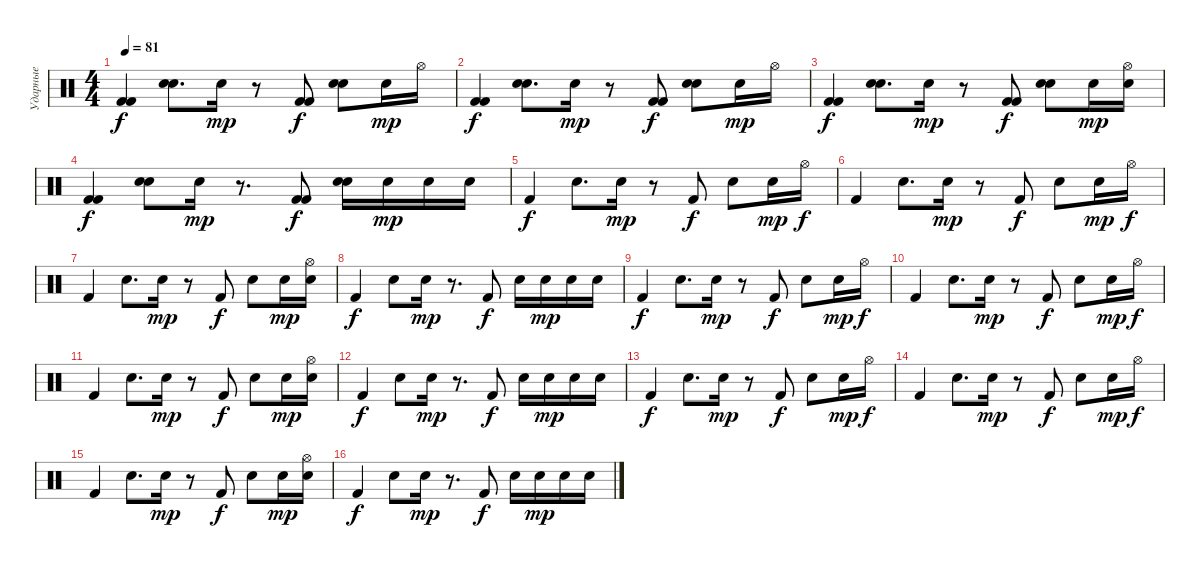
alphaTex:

\track ("Ударные" "Ударные") {instrument percussion}
\staff {score}
\articulation defaults
\ts (4 4)
\tempo 81
\clef neutral
\ks c
("Kick (hit) 2" "Kick (hit) 2").4{dy f} ("Snare (hit) 2" "Snare (hit) 2").8{d} "Electric Snare (hit)".16{dy mp} r.8 ("Kick (hit) 2" "Kick (hit) 2").8{dy f} ("Snare (hit) 2" "Snare (hit) 2").8 "Electric Snare (hit)".16{dy mp} "Hi-Hat (open)".16 |
("Kick (hit) 2" "Kick (hit) 2").4{dy f} ("Snare (hit) 2" "Snare (hit) 2").8{d} "Electric Snare (hit)".16{dy mp} r.8 ("Kick (hit) 2" "Kick (hit) 2").8{dy f} ("Snare (hit) 2" "Snare (hit) 2").8 "Electric Snare (hit)".16{dy mp} "Hi-Hat (open)".16 |
("Kick (hit) 2" "Kick (hit) 2").4{dy f} ("Snare (hit) 2" "Snare (hit) 2").8{d} "Electric Snare (hit)".16{dy mp} r.8 ("Kick (hit) 2" "Kick (hit) 2").8{dy f} ("Snare (hit) 2" "Snare (hit) 2").8 "Electric Snare (hit)".16{dy mp} ("Hi-Hat (open)" "Electric Snare (hit)").16 |
("Kick (hit) 2" "Kick (hit) 2").4{dy f} ("Snare (hit) 2" "Snare (hit) 2").8 "Electric Snare (hit)".16{dy mp} r.8{d} ("Kick (hit) 2" "Kick (hit) 2").8{dy f} ("Snare (hit) 2" "Snare (hit) 2").16 "Electric Snare (hit)".16{dy mp} "Electric Snare (hit)".16 "Electric Snare (hit)".16 |
"Kick (hit) 2".4{dy f} "Snare (hit) 2".8{d} "Electric Snare (hit)".16{dy mp} r.8 "Kick (hit) 2".8{dy f} "Snare (hit) 2".8 "Electric Snare (hit)".16{dy mp} "Hi-Hat (open)".16{dy f} |
"Kick (hit) 2".4 "Snare (hit) 2".8{d} "Electric Snare (hit)".16{dy mp} r.8 "Kick (hit) 2".8{dy f} "Snare (hit) 2".8 "Electric Snare (hit)".16{dy mp} "Hi-Hat (open)".16{dy f} |
"Kick (hit) 2".4 "Snare (hit) 2".8{d} "Electric Snare (hit)".16{dy mp} r.8 "Kick (hit) 2".8{dy f} "Snare (hit) 2".8 "Electric Snare (hit)".16{dy mp} ("Hi-Hat (open)" "Electric Snare (hit)").16 |
"Kick (hit) 2".4{dy f} "Snare (hit) 2".8 "Electric Snare (hit)".16{dy mp} r.8{d} "Kick (hit) 2".8{dy f} "Snare (hit) 2".16 "Electric Snare (hit)".16{dy mp} "Electric Snare (hit)".16 "Electric Snare (hit)".16 |
"Kick (hit) 2".4{dy f} "Snare (hit) 2".8{d} "Electric Snare (hit)".16{dy mp} r.8 "Kick (hit) 2".8{dy f} "Snare (hit) 2".8 "Electric Snare (hit)".16{dy mp} "Hi-Hat (open)".16{dy f} |
"Kick (hit) 2".4 "Snare (hit) 2".8{d} "Electric Snare (hit)".16{dy mp} r.8 "Kick (hit) 2".8{dy f} "Snare (hit) 2".8 "Electric Snare (hit)".16{dy mp} "Hi-Hat (open)".16{dy f} |
"Kick (hit) 2".4 "Snare (hit) 2".8{d} "Electric Snare (hit)".16{dy mp} r.8 "Kick (hit) 2".8{dy f} "Snare (hit) 2".8 "Electric Snare (hit)".16{dy mp} ("Hi-Hat (open)" "Electric Snare (hit)").16 |
"Kick (hit) 2".4{dy f} "Snare (hit) 2".8 "Electric Snare (hit)".16{dy mp} r.8{d} "Kick (hit) 2".8{dy f} "Snare (hit) 2".16 "Electric Snare (hit)".16{dy mp} "Electric Snare (hit)".16 "Electric Snare (hit)".16 |
"Kick (hit) 2".4{dy f} "Snare (hit) 2".8{d} "Electric Snare (hit)".16{dy mp} r.8 "Kick (hit) 2".8{dy f} "Snare (hit) 2".8 "Electric Snare (hit)".16{dy mp} "Hi-Hat (open)".16{dy f} |
"Kick (hit) 2".4 "Snare (hit) 2".8{d} "Electric Snare (hit)".16{dy mp} r.8 "Kick (hit) 2".8{dy f} "Snare (hit) 2".8 "Electric Snare (hit)".16{dy mp} "Hi-Hat (open)".16{dy f} |
"Kick (hit) 2".4 "Snare (hit) 2".8{d} "Electric Snare (hit)".16{dy mp} r.8 "Kick (hit) 2".8{dy f} "Snare (hit) 2".8 "Electric Snare (hit)".16{dy mp} ("Hi-Hat (open)" "Electric Snare (hit)").16 |
"Kick (hit) 2".4{dy f} "Snare (hit) 2".8 "Electric Snare (hit)".16{dy mp} r.8{d} "Kick (hit) 2".8{dy f} "Snare (hit) 2".16 "Electric Snare (hit)".16{dy mp} "Electric Snare (hit)".16 "Electric Snare (hit)".16
